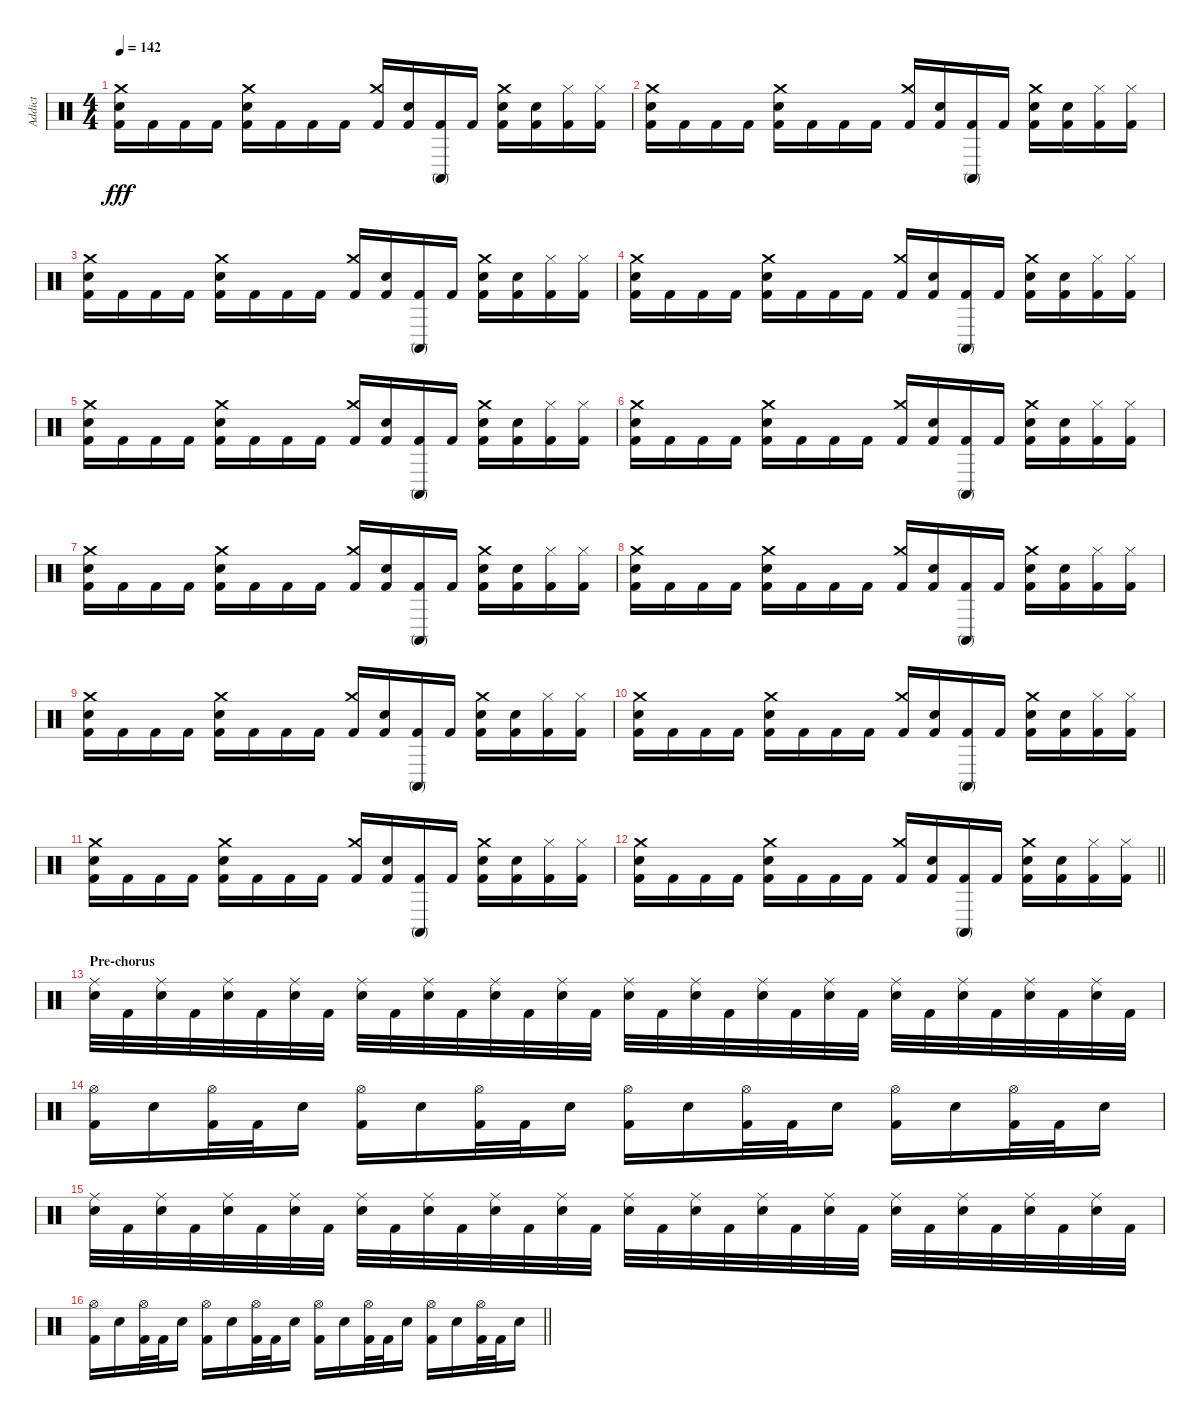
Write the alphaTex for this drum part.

\track ("Addict" "Addict") {instrument percussion}
\staff {score}
\articulation defaults
\ts (4 4)
\tempo 142
\clef neutral
\ks c
("Kick (hit) 2" "Snare (hit) 2" "Crash medium (hit)").16{dy fff} "Kick (hit) 2".16 "Kick (hit) 2".16 "Kick (hit) 2".16 ("Kick (hit) 2" "Snare (hit) 2" "Crash medium (hit)").16 "Kick (hit) 2".16 "Kick (hit) 2".16 "Kick (hit) 2".16 ("Kick (hit) 2" "Crash medium (hit)").16 ("Kick (hit) 2" "Snare (hit) 2").16 ("Kick (hit) 2" "Conga high (mute)").16 "Kick (hit) 2".16 ("Kick (hit) 2" "Snare (hit) 2" "Crash medium (hit)").16 ("Kick (hit) 2" "Snare (hit) 2").16 ("Kick (hit) 2" "Hi-Hat (closed)").16 ("Kick (hit) 2" "Hi-Hat (closed)").16 |
("Kick (hit) 2" "Snare (hit) 2" "Crash medium (hit)").16 "Kick (hit) 2".16 "Kick (hit) 2".16 "Kick (hit) 2".16 ("Kick (hit) 2" "Snare (hit) 2" "Crash medium (hit)").16 "Kick (hit) 2".16 "Kick (hit) 2".16 "Kick (hit) 2".16 ("Kick (hit) 2" "Crash medium (hit)").16 ("Kick (hit) 2" "Snare (hit) 2").16 ("Kick (hit) 2" "Conga high (mute)").16 "Kick (hit) 2".16 ("Kick (hit) 2" "Snare (hit) 2" "Crash medium (hit)").16 ("Kick (hit) 2" "Snare (hit) 2").16 ("Kick (hit) 2" "Hi-Hat (closed)").16 ("Kick (hit) 2" "Hi-Hat (closed)").16 |
("Kick (hit) 2" "Snare (hit) 2" "Crash medium (hit)").16 "Kick (hit) 2".16 "Kick (hit) 2".16 "Kick (hit) 2".16 ("Kick (hit) 2" "Snare (hit) 2" "Crash medium (hit)").16 "Kick (hit) 2".16 "Kick (hit) 2".16 "Kick (hit) 2".16 ("Kick (hit) 2" "Crash medium (hit)").16 ("Kick (hit) 2" "Snare (hit) 2").16 ("Kick (hit) 2" "Conga high (mute)").16 "Kick (hit) 2".16 ("Kick (hit) 2" "Snare (hit) 2" "Crash medium (hit)").16 ("Kick (hit) 2" "Snare (hit) 2").16 ("Kick (hit) 2" "Hi-Hat (closed)").16 ("Kick (hit) 2" "Hi-Hat (closed)").16 |
("Kick (hit) 2" "Snare (hit) 2" "Crash medium (hit)").16 "Kick (hit) 2".16 "Kick (hit) 2".16 "Kick (hit) 2".16 ("Kick (hit) 2" "Snare (hit) 2" "Crash medium (hit)").16 "Kick (hit) 2".16 "Kick (hit) 2".16 "Kick (hit) 2".16 ("Kick (hit) 2" "Crash medium (hit)").16 ("Kick (hit) 2" "Snare (hit) 2").16 ("Kick (hit) 2" "Conga high (mute)").16 "Kick (hit) 2".16 ("Kick (hit) 2" "Snare (hit) 2" "Crash medium (hit)").16 ("Kick (hit) 2" "Snare (hit) 2").16 ("Kick (hit) 2" "Hi-Hat (closed)").16 ("Kick (hit) 2" "Hi-Hat (closed)").16 |
("Kick (hit) 2" "Snare (hit) 2" "Crash medium (hit)").16 "Kick (hit) 2".16 "Kick (hit) 2".16 "Kick (hit) 2".16 ("Kick (hit) 2" "Snare (hit) 2" "Crash medium (hit)").16 "Kick (hit) 2".16 "Kick (hit) 2".16 "Kick (hit) 2".16 ("Kick (hit) 2" "Crash medium (hit)").16 ("Kick (hit) 2" "Snare (hit) 2").16 ("Kick (hit) 2" "Conga high (mute)").16 "Kick (hit) 2".16 ("Kick (hit) 2" "Snare (hit) 2" "Crash medium (hit)").16 ("Kick (hit) 2" "Snare (hit) 2").16 ("Kick (hit) 2" "Hi-Hat (closed)").16 ("Kick (hit) 2" "Hi-Hat (closed)").16 |
("Kick (hit) 2" "Snare (hit) 2" "Crash medium (hit)").16 "Kick (hit) 2".16 "Kick (hit) 2".16 "Kick (hit) 2".16 ("Kick (hit) 2" "Snare (hit) 2" "Crash medium (hit)").16 "Kick (hit) 2".16 "Kick (hit) 2".16 "Kick (hit) 2".16 ("Kick (hit) 2" "Crash medium (hit)").16 ("Kick (hit) 2" "Snare (hit) 2").16 ("Kick (hit) 2" "Conga high (mute)").16 "Kick (hit) 2".16 ("Kick (hit) 2" "Snare (hit) 2" "Crash medium (hit)").16 ("Kick (hit) 2" "Snare (hit) 2").16 ("Kick (hit) 2" "Hi-Hat (closed)").16 ("Kick (hit) 2" "Hi-Hat (closed)").16 |
("Kick (hit) 2" "Snare (hit) 2" "Crash medium (hit)").16 "Kick (hit) 2".16 "Kick (hit) 2".16 "Kick (hit) 2".16 ("Kick (hit) 2" "Snare (hit) 2" "Crash medium (hit)").16 "Kick (hit) 2".16 "Kick (hit) 2".16 "Kick (hit) 2".16 ("Kick (hit) 2" "Crash medium (hit)").16 ("Kick (hit) 2" "Snare (hit) 2").16 ("Kick (hit) 2" "Conga high (mute)").16 "Kick (hit) 2".16 ("Kick (hit) 2" "Snare (hit) 2" "Crash medium (hit)").16 ("Kick (hit) 2" "Snare (hit) 2").16 ("Kick (hit) 2" "Hi-Hat (closed)").16 ("Kick (hit) 2" "Hi-Hat (closed)").16 |
("Kick (hit) 2" "Snare (hit) 2" "Crash medium (hit)").16 "Kick (hit) 2".16 "Kick (hit) 2".16 "Kick (hit) 2".16 ("Kick (hit) 2" "Snare (hit) 2" "Crash medium (hit)").16 "Kick (hit) 2".16 "Kick (hit) 2".16 "Kick (hit) 2".16 ("Kick (hit) 2" "Crash medium (hit)").16 ("Kick (hit) 2" "Snare (hit) 2").16 ("Kick (hit) 2" "Conga high (mute)").16 "Kick (hit) 2".16 ("Kick (hit) 2" "Snare (hit) 2" "Crash medium (hit)").16 ("Kick (hit) 2" "Snare (hit) 2").16 ("Kick (hit) 2" "Hi-Hat (closed)").16 ("Kick (hit) 2" "Hi-Hat (closed)").16 |
("Kick (hit) 2" "Snare (hit) 2" "Crash medium (hit)").16 "Kick (hit) 2".16 "Kick (hit) 2".16 "Kick (hit) 2".16 ("Kick (hit) 2" "Snare (hit) 2" "Crash medium (hit)").16 "Kick (hit) 2".16 "Kick (hit) 2".16 "Kick (hit) 2".16 ("Kick (hit) 2" "Crash medium (hit)").16 ("Kick (hit) 2" "Snare (hit) 2").16 ("Kick (hit) 2" "Conga high (mute)").16 "Kick (hit) 2".16 ("Kick (hit) 2" "Snare (hit) 2" "Crash medium (hit)").16 ("Kick (hit) 2" "Snare (hit) 2").16 ("Kick (hit) 2" "Hi-Hat (closed)").16 ("Kick (hit) 2" "Hi-Hat (closed)").16 |
("Kick (hit) 2" "Snare (hit) 2" "Crash medium (hit)").16 "Kick (hit) 2".16 "Kick (hit) 2".16 "Kick (hit) 2".16 ("Kick (hit) 2" "Snare (hit) 2" "Crash medium (hit)").16 "Kick (hit) 2".16 "Kick (hit) 2".16 "Kick (hit) 2".16 ("Kick (hit) 2" "Crash medium (hit)").16 ("Kick (hit) 2" "Snare (hit) 2").16 ("Kick (hit) 2" "Conga high (mute)").16 "Kick (hit) 2".16 ("Kick (hit) 2" "Snare (hit) 2" "Crash medium (hit)").16 ("Kick (hit) 2" "Snare (hit) 2").16 ("Kick (hit) 2" "Hi-Hat (closed)").16 ("Kick (hit) 2" "Hi-Hat (closed)").16 |
("Kick (hit) 2" "Snare (hit) 2" "Crash medium (hit)").16 "Kick (hit) 2".16 "Kick (hit) 2".16 "Kick (hit) 2".16 ("Kick (hit) 2" "Snare (hit) 2" "Crash medium (hit)").16 "Kick (hit) 2".16 "Kick (hit) 2".16 "Kick (hit) 2".16 ("Kick (hit) 2" "Crash medium (hit)").16 ("Kick (hit) 2" "Snare (hit) 2").16 ("Kick (hit) 2" "Conga high (mute)").16 "Kick (hit) 2".16 ("Kick (hit) 2" "Snare (hit) 2" "Crash medium (hit)").16 ("Kick (hit) 2" "Snare (hit) 2").16 ("Kick (hit) 2" "Hi-Hat (closed)").16 ("Kick (hit) 2" "Hi-Hat (closed)").16 |
\barLineRight lightlight
("Kick (hit) 2" "Snare (hit) 2" "Crash medium (hit)").16 "Kick (hit) 2".16 "Kick (hit) 2".16 "Kick (hit) 2".16 ("Kick (hit) 2" "Snare (hit) 2" "Crash medium (hit)").16 "Kick (hit) 2".16 "Kick (hit) 2".16 "Kick (hit) 2".16 ("Kick (hit) 2" "Crash medium (hit)").16 ("Kick (hit) 2" "Snare (hit) 2").16 ("Kick (hit) 2" "Conga high (mute)").16 "Kick (hit) 2".16 ("Kick (hit) 2" "Snare (hit) 2" "Crash medium (hit)").16 ("Kick (hit) 2" "Snare (hit) 2").16 ("Kick (hit) 2" "Hi-Hat (closed)").16 ("Kick (hit) 2" "Hi-Hat (closed)").16 |
\section ("" "Pre-chorus")
("Snare (hit) 2" "Ride (middle)").32 "Kick (hit) 2".32 ("Snare (hit) 2" "Ride (middle)").32 "Kick (hit) 2".32 ("Snare (hit) 2" "Ride (middle)").32 "Kick (hit) 2".32 ("Snare (hit) 2" "Ride (middle)").32 "Kick (hit) 2".32 ("Snare (hit) 2" "Ride (middle)").32 "Kick (hit) 2".32 ("Snare (hit) 2" "Ride (middle)").32 "Kick (hit) 2".32 ("Snare (hit) 2" "Ride (middle)").32 "Kick (hit) 2".32 ("Snare (hit) 2" "Ride (middle)").32 "Kick (hit) 2".32 ("Snare (hit) 2" "Ride (middle)").32 "Kick (hit) 2".32 ("Snare (hit) 2" "Ride (middle)").32 "Kick (hit) 2".32 ("Snare (hit) 2" "Ride (middle)").32 "Kick (hit) 2".32 ("Snare (hit) 2" "Ride (middle)").32 "Kick (hit) 2".32 ("Snare (hit) 2" "Ride (middle)").32 "Kick (hit) 2".32 ("Snare (hit) 2" "Ride (middle)").32 "Kick (hit) 2".32 ("Snare (hit) 2" "Ride (middle)").32 "Kick (hit) 2".32 ("Snare (hit) 2" "Ride (middle)").32 "Kick (hit) 2".32 |
("Kick (hit) 2" "Hi-Hat (open)").16 "Snare (hit) 2".16 ("Kick (hit) 2" "Hi-Hat (open)").32 "Kick (hit) 2".32 "Snare (hit) 2".16 ("Kick (hit) 2" "Hi-Hat (open)").16 "Snare (hit) 2".16 ("Kick (hit) 2" "Hi-Hat (open)").32 "Kick (hit) 2".32 "Snare (hit) 2".16 ("Kick (hit) 2" "Hi-Hat (open)").16 "Snare (hit) 2".16 ("Kick (hit) 2" "Hi-Hat (open)").32 "Kick (hit) 2".32 "Snare (hit) 2".16 ("Kick (hit) 2" "Hi-Hat (open)").16 "Snare (hit) 2".16 ("Kick (hit) 2" "Hi-Hat (open)").32 "Kick (hit) 2".32 "Snare (hit) 2".16 |
("Snare (hit) 2" "Ride (middle)").32 "Kick (hit) 2".32 ("Snare (hit) 2" "Ride (middle)").32 "Kick (hit) 2".32 ("Snare (hit) 2" "Ride (middle)").32 "Kick (hit) 2".32 ("Snare (hit) 2" "Ride (middle)").32 "Kick (hit) 2".32 ("Snare (hit) 2" "Ride (middle)").32 "Kick (hit) 2".32 ("Snare (hit) 2" "Ride (middle)").32 "Kick (hit) 2".32 ("Snare (hit) 2" "Ride (middle)").32 "Kick (hit) 2".32 ("Snare (hit) 2" "Ride (middle)").32 "Kick (hit) 2".32 ("Snare (hit) 2" "Ride (middle)").32 "Kick (hit) 2".32 ("Snare (hit) 2" "Ride (middle)").32 "Kick (hit) 2".32 ("Snare (hit) 2" "Ride (middle)").32 "Kick (hit) 2".32 ("Snare (hit) 2" "Ride (middle)").32 "Kick (hit) 2".32 ("Snare (hit) 2" "Ride (middle)").32 "Kick (hit) 2".32 ("Snare (hit) 2" "Ride (middle)").32 "Kick (hit) 2".32 ("Snare (hit) 2" "Ride (middle)").32 "Kick (hit) 2".32 ("Snare (hit) 2" "Ride (middle)").32 "Kick (hit) 2".32 |
\barLineRight lightlight
("Kick (hit) 2" "Hi-Hat (open)").16 "Snare (hit) 2".16 ("Kick (hit) 2" "Hi-Hat (open)").32 "Kick (hit) 2".32 "Snare (hit) 2".16 ("Kick (hit) 2" "Hi-Hat (open)").16 "Snare (hit) 2".16 ("Kick (hit) 2" "Hi-Hat (open)").32 "Kick (hit) 2".32 "Snare (hit) 2".16 ("Kick (hit) 2" "Hi-Hat (open)").16 "Snare (hit) 2".16 ("Kick (hit) 2" "Hi-Hat (open)").32 "Kick (hit) 2".32 "Snare (hit) 2".16 ("Kick (hit) 2" "Hi-Hat (open)").16 "Snare (hit) 2".16 ("Kick (hit) 2" "Hi-Hat (open)").32 "Kick (hit) 2".32 "Snare (hit) 2".16
